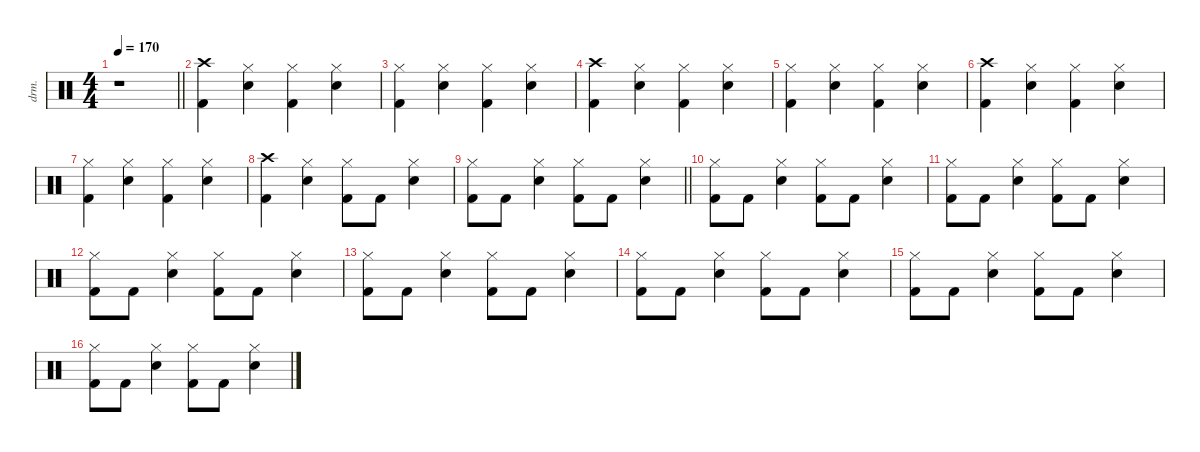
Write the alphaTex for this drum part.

\defaultSystemsLayout 4
\hideDynamics
\bracketExtendMode nobrackets
\otherSystemsTrackNameOrientation horizontal
\track ("Percussion" "drm.") {instrument percussion}
\staff {score}
\articulation defaults
\ts (4 4)
\tempo 170
\clef neutral
\barLineRight lightlight
\ks c
r.1{dy f beam Down} |
("Crash high (hit)" "Kick (hit) 2").4{beam Down} ("Hi-Hat (closed)" "Snare (hit) 2").4{beam Down} ("Hi-Hat (closed)" "Kick (hit) 2").4{beam Down} ("Hi-Hat (closed)" "Snare (hit) 2").4{beam Down} |
("Hi-Hat (closed)" "Kick (hit) 2").4{beam Down} ("Hi-Hat (closed)" "Snare (hit) 2").4{beam Down} ("Hi-Hat (closed)" "Kick (hit) 2").4{beam Down} ("Hi-Hat (closed)" "Snare (hit) 2").4{beam Down} |
("Crash high (hit)" "Kick (hit) 2").4{beam Down} ("Hi-Hat (closed)" "Snare (hit) 2").4{beam Down} ("Hi-Hat (closed)" "Kick (hit) 2").4{beam Down} ("Hi-Hat (closed)" "Snare (hit) 2").4{beam Down} |
("Hi-Hat (closed)" "Kick (hit) 2").4{beam Down} ("Hi-Hat (closed)" "Snare (hit) 2").4{beam Down} ("Hi-Hat (closed)" "Kick (hit) 2").4{beam Down} ("Hi-Hat (closed)" "Snare (hit) 2").4{beam Down} |
("Crash high (hit)" "Kick (hit) 2").4{beam Down} ("Hi-Hat (closed)" "Snare (hit) 2").4{beam Down} ("Hi-Hat (closed)" "Kick (hit) 2").4{beam Down} ("Hi-Hat (closed)" "Snare (hit) 2").4{beam Down} |
("Hi-Hat (closed)" "Kick (hit) 2").4{beam Down} ("Hi-Hat (closed)" "Snare (hit) 2").4{beam Down} ("Hi-Hat (closed)" "Kick (hit) 2").4{beam Down} ("Hi-Hat (closed)" "Snare (hit) 2").4{beam Down} |
("Crash high (hit)" "Kick (hit) 2").4{beam Down} ("Hi-Hat (closed)" "Snare (hit) 2").4{beam Down} ("Hi-Hat (closed)" "Kick (hit) 2").8{beam Down} "Kick (hit) 2".8{beam Down} ("Hi-Hat (closed)" "Snare (hit) 2").4{beam Down} |
\barLineRight lightlight
("Hi-Hat (closed)" "Kick (hit) 2").8{beam Down} "Kick (hit) 2".8{beam Down} ("Hi-Hat (closed)" "Snare (hit) 2").4{beam Down} ("Hi-Hat (closed)" "Kick (hit) 2").8{beam Down} "Kick (hit) 2".8{beam Down} ("Hi-Hat (closed)" "Snare (hit) 2").4{beam Down} |
("Hi-Hat (closed)" "Kick (hit) 2").8{beam Down} "Kick (hit) 2".8{beam Down} ("Hi-Hat (closed)" "Snare (hit) 2").4{beam Down} ("Hi-Hat (closed)" "Kick (hit) 2").8{beam Down} "Kick (hit) 2".8{beam Down} ("Hi-Hat (closed)" "Snare (hit) 2").4{beam Down} |
("Hi-Hat (closed)" "Kick (hit) 2").8{beam Down} "Kick (hit) 2".8{beam Down} ("Hi-Hat (closed)" "Snare (hit) 2").4{beam Down} ("Hi-Hat (closed)" "Kick (hit) 2").8{beam Down} "Kick (hit) 2".8{beam Down} ("Hi-Hat (closed)" "Snare (hit) 2").4{beam Down} |
("Hi-Hat (closed)" "Kick (hit) 2").8{beam Down} "Kick (hit) 2".8{beam Down} ("Hi-Hat (closed)" "Snare (hit) 2").4{beam Down} ("Hi-Hat (closed)" "Kick (hit) 2").8{beam Down} "Kick (hit) 2".8{beam Down} ("Hi-Hat (closed)" "Snare (hit) 2").4{beam Down} |
("Hi-Hat (closed)" "Kick (hit) 2").8{beam Down} "Kick (hit) 2".8{beam Down} ("Hi-Hat (closed)" "Snare (hit) 2").4{beam Down} ("Hi-Hat (closed)" "Kick (hit) 2").8{beam Down} "Kick (hit) 2".8{beam Down} ("Hi-Hat (closed)" "Snare (hit) 2").4{beam Down} |
("Hi-Hat (closed)" "Kick (hit) 2").8{beam Down} "Kick (hit) 2".8{beam Down} ("Hi-Hat (closed)" "Snare (hit) 2").4{beam Down} ("Hi-Hat (closed)" "Kick (hit) 2").8{beam Down} "Kick (hit) 2".8{beam Down} ("Hi-Hat (closed)" "Snare (hit) 2").4{beam Down} |
("Hi-Hat (closed)" "Kick (hit) 2").8{beam Down} "Kick (hit) 2".8{beam Down} ("Hi-Hat (closed)" "Snare (hit) 2").4{beam Down} ("Hi-Hat (closed)" "Kick (hit) 2").8{beam Down} "Kick (hit) 2".8{beam Down} ("Hi-Hat (closed)" "Snare (hit) 2").4{beam Down} |
("Hi-Hat (closed)" "Kick (hit) 2").8{beam Down} "Kick (hit) 2".8{beam Down} ("Hi-Hat (closed)" "Snare (hit) 2").4{beam Down} ("Hi-Hat (closed)" "Kick (hit) 2").8{beam Down} "Kick (hit) 2".8{beam Down} ("Hi-Hat (closed)" "Snare (hit) 2").4{beam Down}
